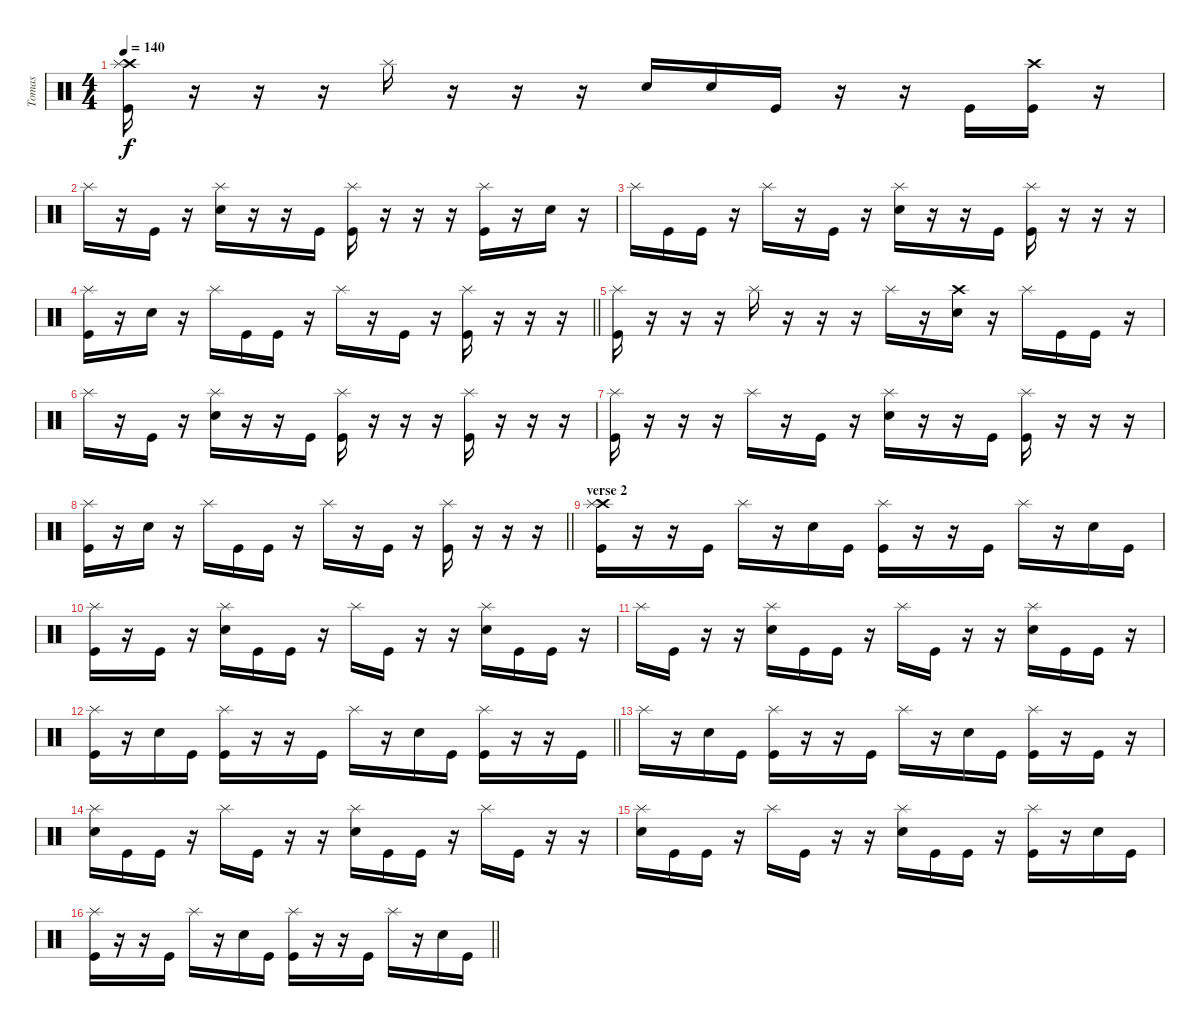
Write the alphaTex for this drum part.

\track ("Tomas" "Tomas") {instrument percussion}
\staff {score}
\articulation defaults
\ts (4 4)
\tempo 140
\clef neutral
\ks c
("Crash high (hit)" "Splash (hit)" "Kick (hit)").16{dy f} r.16 r.16 r.16 "Splash (hit)".16 r.16 r.16 r.16 "Electric Snare (hit)".16 "Electric Snare (hit)".16 "Kick (hit)".16 r.16 r.16 "Kick (hit)".16 ("Crash high (hit)" "Kick (hit)").16 r.16 |
"Splash (hit)".16 r.16 "Kick (hit)".16 r.16 ("Splash (hit)" "Electric Snare (hit)").16 r.16 r.16 "Kick (hit)".16 ("Splash (hit)" "Kick (hit)").16 r.16 r.16 r.16 ("Splash (hit)" "Kick (hit)").16 r.16 "Electric Snare (hit)".16 r.16 |
"Splash (hit)".16 "Kick (hit)".16 "Kick (hit)".16 r.16 "Splash (hit)".16 r.16 "Kick (hit)".16 r.16 ("Splash (hit)" "Electric Snare (hit)").16 r.16 r.16 "Kick (hit)".16 ("Splash (hit)" "Kick (hit)").16 r.16 r.16 r.16 |
\barLineRight lightlight
("Splash (hit)" "Kick (hit)").16 r.16 "Electric Snare (hit)".16 r.16 "Splash (hit)".16 "Kick (hit)".16 "Kick (hit)".16 r.16 "Splash (hit)".16 r.16 "Kick (hit)".16 r.16 ("Splash (hit)" "Kick (hit)").16 r.16 r.16 r.16 |
("Splash (hit)" "Kick (hit)").16 r.16 r.16 r.16 "Splash (hit)".16 r.16 r.16 r.16 "Splash (hit)".16 r.16 ("Crash high (hit)" "Electric Snare (hit)").16 r.16 "Splash (hit)".16 "Kick (hit)".16 "Kick (hit)".16 r.16 |
"Splash (hit)".16 r.16 "Kick (hit)".16 r.16 ("Splash (hit)" "Electric Snare (hit)").16 r.16 r.16 "Kick (hit)".16 ("Splash (hit)" "Kick (hit)").16 r.16 r.16 r.16 ("Splash (hit)" "Kick (hit)").16 r.16 r.16 r.16 |
("Splash (hit)" "Kick (hit)").16 r.16 r.16 r.16 "Splash (hit)".16 r.16 "Kick (hit)".16 r.16 ("Splash (hit)" "Electric Snare (hit)").16 r.16 r.16 "Kick (hit)".16 ("Splash (hit)" "Kick (hit)").16 r.16 r.16 r.16 |
\barLineRight lightlight
("Splash (hit)" "Kick (hit)").16 r.16 "Electric Snare (hit)".16 r.16 "Splash (hit)".16 "Kick (hit)".16 "Kick (hit)".16 r.16 "Splash (hit)".16 r.16 "Kick (hit)".16 r.16 ("Splash (hit)" "Kick (hit)").16 r.16 r.16 r.16 |
\section ("" "verse 2")
("Crash high (hit)" "Splash (hit)" "Kick (hit)").16 r.16 r.16 "Kick (hit)".16 "Splash (hit)".16 r.16 "Electric Snare (hit)".16 "Kick (hit)".16 ("Splash (hit)" "Kick (hit)").16 r.16 r.16 "Kick (hit)".16 "Splash (hit)".16 r.16 "Electric Snare (hit)".16 "Kick (hit)".16 |
("Splash (hit)" "Kick (hit)").16 r.16 "Kick (hit)".16 r.16 ("Splash (hit)" "Electric Snare (hit)").16 "Kick (hit)".16 "Kick (hit)".16 r.16 "Splash (hit)".16 "Kick (hit)".16 r.16 r.16 ("Splash (hit)" "Electric Snare (hit)").16 "Kick (hit)".16 "Kick (hit)".16 r.16 |
"Splash (hit)".16 "Kick (hit)".16 r.16 r.16 ("Splash (hit)" "Electric Snare (hit)").16 "Kick (hit)".16 "Kick (hit)".16 r.16 "Splash (hit)".16 "Kick (hit)".16 r.16 r.16 ("Splash (hit)" "Electric Snare (hit)").16 "Kick (hit)".16 "Kick (hit)".16 r.16 |
\barLineRight lightlight
("Splash (hit)" "Kick (hit)").16 r.16 "Electric Snare (hit)".16 "Kick (hit)".16 ("Splash (hit)" "Kick (hit)").16 r.16 r.16 "Kick (hit)".16 "Splash (hit)".16 r.16 "Electric Snare (hit)".16 "Kick (hit)".16 ("Splash (hit)" "Kick (hit)").16 r.16 r.16 "Kick (hit)".16 |
"Splash (hit)".16 r.16 "Electric Snare (hit)".16 "Kick (hit)".16 ("Splash (hit)" "Kick (hit)").16 r.16 r.16 "Kick (hit)".16 "Splash (hit)".16 r.16 "Electric Snare (hit)".16 "Kick (hit)".16 ("Splash (hit)" "Kick (hit)").16 r.16 "Kick (hit)".16 r.16 |
("Splash (hit)" "Electric Snare (hit)").16 "Kick (hit)".16 "Kick (hit)".16 r.16 "Splash (hit)".16 "Kick (hit)".16 r.16 r.16 ("Splash (hit)" "Electric Snare (hit)").16 "Kick (hit)".16 "Kick (hit)".16 r.16 "Splash (hit)".16 "Kick (hit)".16 r.16 r.16 |
("Splash (hit)" "Electric Snare (hit)").16 "Kick (hit)".16 "Kick (hit)".16 r.16 "Splash (hit)".16 "Kick (hit)".16 r.16 r.16 ("Splash (hit)" "Electric Snare (hit)").16 "Kick (hit)".16 "Kick (hit)".16 r.16 ("Splash (hit)" "Kick (hit)").16 r.16 "Electric Snare (hit)".16 "Kick (hit)".16 |
\barLineRight lightlight
("Splash (hit)" "Kick (hit)").16 r.16 r.16 "Kick (hit)".16 "Splash (hit)".16 r.16 "Electric Snare (hit)".16 "Kick (hit)".16 ("Splash (hit)" "Kick (hit)").16 r.16 r.16 "Kick (hit)".16 "Splash (hit)".16 r.16 "Electric Snare (hit)".16 "Kick (hit)".16
